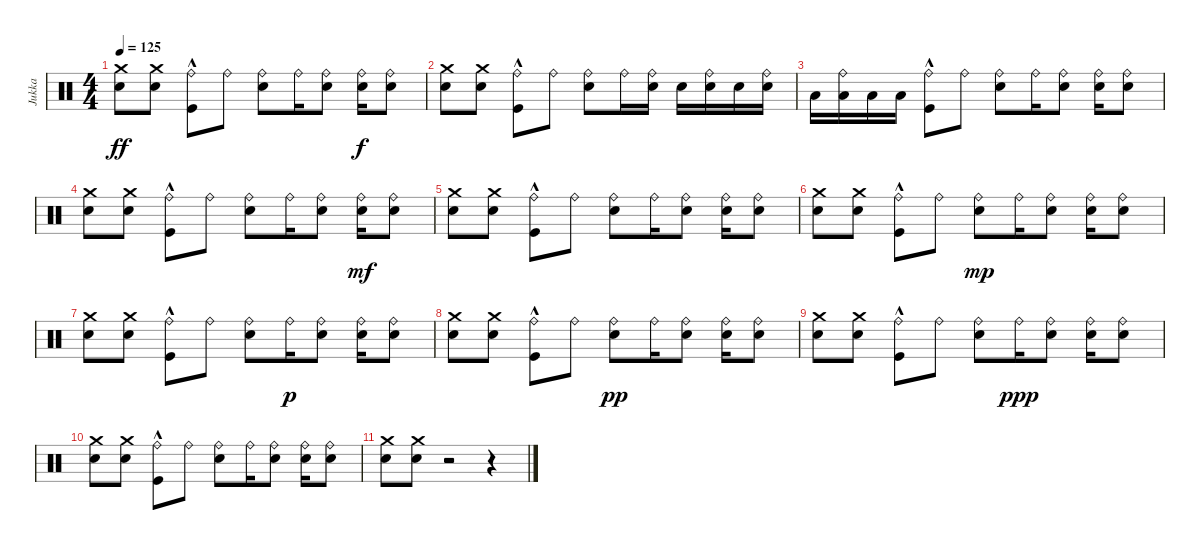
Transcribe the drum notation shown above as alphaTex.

\track ("Jukka" "Jukka") {instrument percussion}
\staff {score}
\articulation defaults
\ts (4 4)
\tempo 125
\clef neutral
\ks c
("Electric Snare (hit)" "Crash medium (hit)").8{dy ff} ("Electric Snare (hit)" "Crash medium (hit)").8 ("Kick (hit)"{hac} "Ride (bell)").8 "Ride (bell)".8 ("Electric Snare (hit)" "Ride (bell)").8 "Ride (bell)".16 ("Electric Snare (hit)" "Ride (bell)").8 ("Electric Snare (hit)" "Ride (bell)").16{dy f} ("Electric Snare (hit)" "Ride (bell)").8 |
("Electric Snare (hit)" "Crash medium (hit)").8 ("Electric Snare (hit)" "Crash medium (hit)").8 ("Kick (hit)"{hac} "Ride (bell)").8 "Ride (bell)".8 ("Electric Snare (hit)" "Ride (bell)").8 "Ride (bell)".16 ("Electric Snare (hit)" "Ride (bell)").16 "Electric Snare (hit)".16 ("Electric Snare (hit)" "Ride (bell)").16 "Electric Snare (hit)".16 ("Electric Snare (hit)" "Ride (bell)").16 |
"Low Floor Tom (hit)".16 ("Low Floor Tom (hit)" "Ride (bell)").16 "Low Floor Tom (hit)".16 "Low Floor Tom (hit)".16 ("Kick (hit)"{hac} "Ride (bell)").8 "Ride (bell)".8 ("Electric Snare (hit)" "Ride (bell)").8 "Ride (bell)".16 ("Electric Snare (hit)" "Ride (bell)").8 ("Electric Snare (hit)" "Ride (bell)").16 ("Electric Snare (hit)" "Ride (bell)").8 |
("Electric Snare (hit)" "Crash medium (hit)").8 ("Electric Snare (hit)" "Crash medium (hit)").8 ("Kick (hit)"{hac} "Ride (bell)").8 "Ride (bell)".8 ("Electric Snare (hit)" "Ride (bell)").8 "Ride (bell)".16 ("Electric Snare (hit)" "Ride (bell)").8 ("Electric Snare (hit)" "Ride (bell)").16{dy mf} ("Electric Snare (hit)" "Ride (bell)").8 |
("Electric Snare (hit)" "Crash medium (hit)").8 ("Electric Snare (hit)" "Crash medium (hit)").8 ("Kick (hit)"{hac} "Ride (bell)").8 "Ride (bell)".8 ("Electric Snare (hit)" "Ride (bell)").8 "Ride (bell)".16 ("Electric Snare (hit)" "Ride (bell)").8 ("Electric Snare (hit)" "Ride (bell)").16 ("Electric Snare (hit)" "Ride (bell)").8 |
("Electric Snare (hit)" "Crash medium (hit)").8 ("Electric Snare (hit)" "Crash medium (hit)").8 ("Kick (hit)"{hac} "Ride (bell)").8 "Ride (bell)".8 ("Electric Snare (hit)" "Ride (bell)").8{dy mp} "Ride (bell)".16 ("Electric Snare (hit)" "Ride (bell)").8 ("Electric Snare (hit)" "Ride (bell)").16 ("Electric Snare (hit)" "Ride (bell)").8 |
("Electric Snare (hit)" "Crash medium (hit)").8 ("Electric Snare (hit)" "Crash medium (hit)").8 ("Kick (hit)"{hac} "Ride (bell)").8 "Ride (bell)".8 ("Electric Snare (hit)" "Ride (bell)").8 "Ride (bell)".16{dy p} ("Electric Snare (hit)" "Ride (bell)").8 ("Electric Snare (hit)" "Ride (bell)").16 ("Electric Snare (hit)" "Ride (bell)").8 |
("Electric Snare (hit)" "Crash medium (hit)").8 ("Electric Snare (hit)" "Crash medium (hit)").8 ("Kick (hit)"{hac} "Ride (bell)").8 "Ride (bell)".8 ("Electric Snare (hit)" "Ride (bell)").8{dy pp} "Ride (bell)".16 ("Electric Snare (hit)" "Ride (bell)").8 ("Electric Snare (hit)" "Ride (bell)").16 ("Electric Snare (hit)" "Ride (bell)").8 |
("Electric Snare (hit)" "Crash medium (hit)").8 ("Electric Snare (hit)" "Crash medium (hit)").8 ("Kick (hit)"{hac} "Ride (bell)").8 "Ride (bell)".8 ("Electric Snare (hit)" "Ride (bell)").8 "Ride (bell)".16{dy ppp} ("Electric Snare (hit)" "Ride (bell)").8 ("Electric Snare (hit)" "Ride (bell)").16 ("Electric Snare (hit)" "Ride (bell)").8 |
("Electric Snare (hit)" "Crash medium (hit)").8 ("Electric Snare (hit)" "Crash medium (hit)").8 ("Kick (hit)"{hac} "Ride (bell)").8 "Ride (bell)".8 ("Electric Snare (hit)" "Ride (bell)").8 "Ride (bell)".16 ("Electric Snare (hit)" "Ride (bell)").8 ("Electric Snare (hit)" "Ride (bell)").16 ("Electric Snare (hit)" "Ride (bell)").8 |
("Electric Snare (hit)" "Crash medium (hit)").8 ("Electric Snare (hit)" "Crash medium (hit)").8 r.2 r.4
